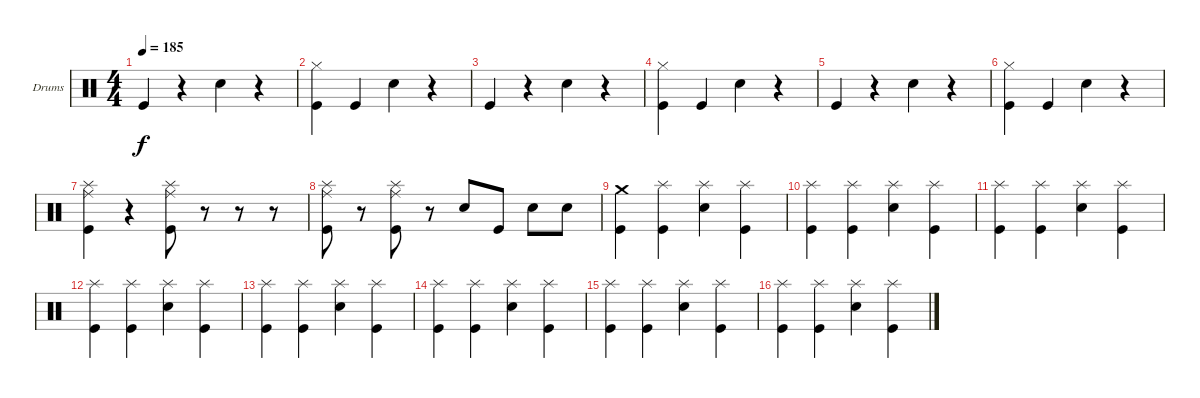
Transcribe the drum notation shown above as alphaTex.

\defaultSystemsLayout 4
\bracketExtendMode groupsimilarinstruments
\firstSystemTrackNameOrientation horizontal
\otherSystemsTrackNameOrientation horizontal
\track ("Chuck Comeau" "Drums") {instrument percussion}
\staff {score}
\articulation defaults
\ts (4 4)
\tempo 185
\clef neutral
\scale
0.333333
\ks c "Kick (hit)".4{dy f}
r.4 "Snare (hit) 2".4 r.4 |
\scale
0.333333 ("Hi-Hat (closed)" "Kick (hit)").4 "Kick (hit)".4 "Snare (hit) 2".4 r.4 |
\scale
0.333333 "Kick (hit)".4 r.4 "Snare (hit) 2".4 r.4 |
\scale
0.333333 ("Hi-Hat (closed)" "Kick (hit)").4 "Kick (hit)".4 "Snare (hit) 2".4 r.4 |
\scale
0.333333 "Kick (hit)".4 r.4 "Snare (hit) 2".4 r.4 |
\scale
0.333333 ("Hi-Hat (closed)" "Kick (hit)").4 "Kick (hit)".4 "Snare (hit) 2".4 r.4 |
\scale
0.333333 ("Splash (hit)" "Ride (middle)" "Kick (hit)").4 r.4 ("Splash (hit)" "Ride (middle)" "Kick (hit)").8 r.8 r.8 r.8 |
\scale
0.333333 ("Splash (hit)" "Ride (middle)" "Kick (hit)").8 r.8 ("Splash (hit)" "Ride (middle)" "Kick (hit)").8 r.8 "Snare (hit) 2".8 "Kick (hit)".8 "Snare (hit) 2".8 "Snare (hit) 2".8 |
\scale
0.333333 ("Crash medium (hit)" "Kick (hit)").4 ("Splash (hit)" "Kick (hit)").4 ("Splash (hit)" "Snare (hit) 2").4 ("Splash (hit)" "Kick (hit)").4 |
\scale
0.333333 ("Splash (hit)" "Kick (hit)").4 ("Splash (hit)" "Kick (hit)").4 ("Splash (hit)" "Snare (hit) 2").4 ("Splash (hit)" "Kick (hit)").4 |
\scale
0.333333 ("Splash (hit)" "Kick (hit)").4 ("Splash (hit)" "Kick (hit)").4 ("Splash (hit)" "Snare (hit) 2").4 ("Splash (hit)" "Kick (hit)").4 |
\scale
0.333333 ("Splash (hit)" "Kick (hit)").4 ("Splash (hit)" "Kick (hit)").4 ("Splash (hit)" "Snare (hit) 2").4 ("Splash (hit)" "Kick (hit)").4 |
\scale
0.333333 ("Splash (hit)" "Kick (hit)").4 ("Splash (hit)" "Kick (hit)").4 ("Splash (hit)" "Snare (hit) 2").4 ("Splash (hit)" "Kick (hit)").4 |
\scale
0.333333 ("Splash (hit)" "Kick (hit)").4 ("Splash (hit)" "Kick (hit)").4 ("Splash (hit)" "Snare (hit) 2").4 ("Splash (hit)" "Kick (hit)").4 |
\scale
0.333333 ("Splash (hit)" "Kick (hit)").4 ("Splash (hit)" "Kick (hit)").4 ("Splash (hit)" "Snare (hit) 2").4 ("Splash (hit)" "Kick (hit)").4 |
\scale
0.333333 ("Splash (hit)" "Kick (hit)").4 ("Splash (hit)" "Kick (hit)").4 ("Splash (hit)" "Snare (hit) 2").4 ("Splash (hit)" "Kick (hit)").4
